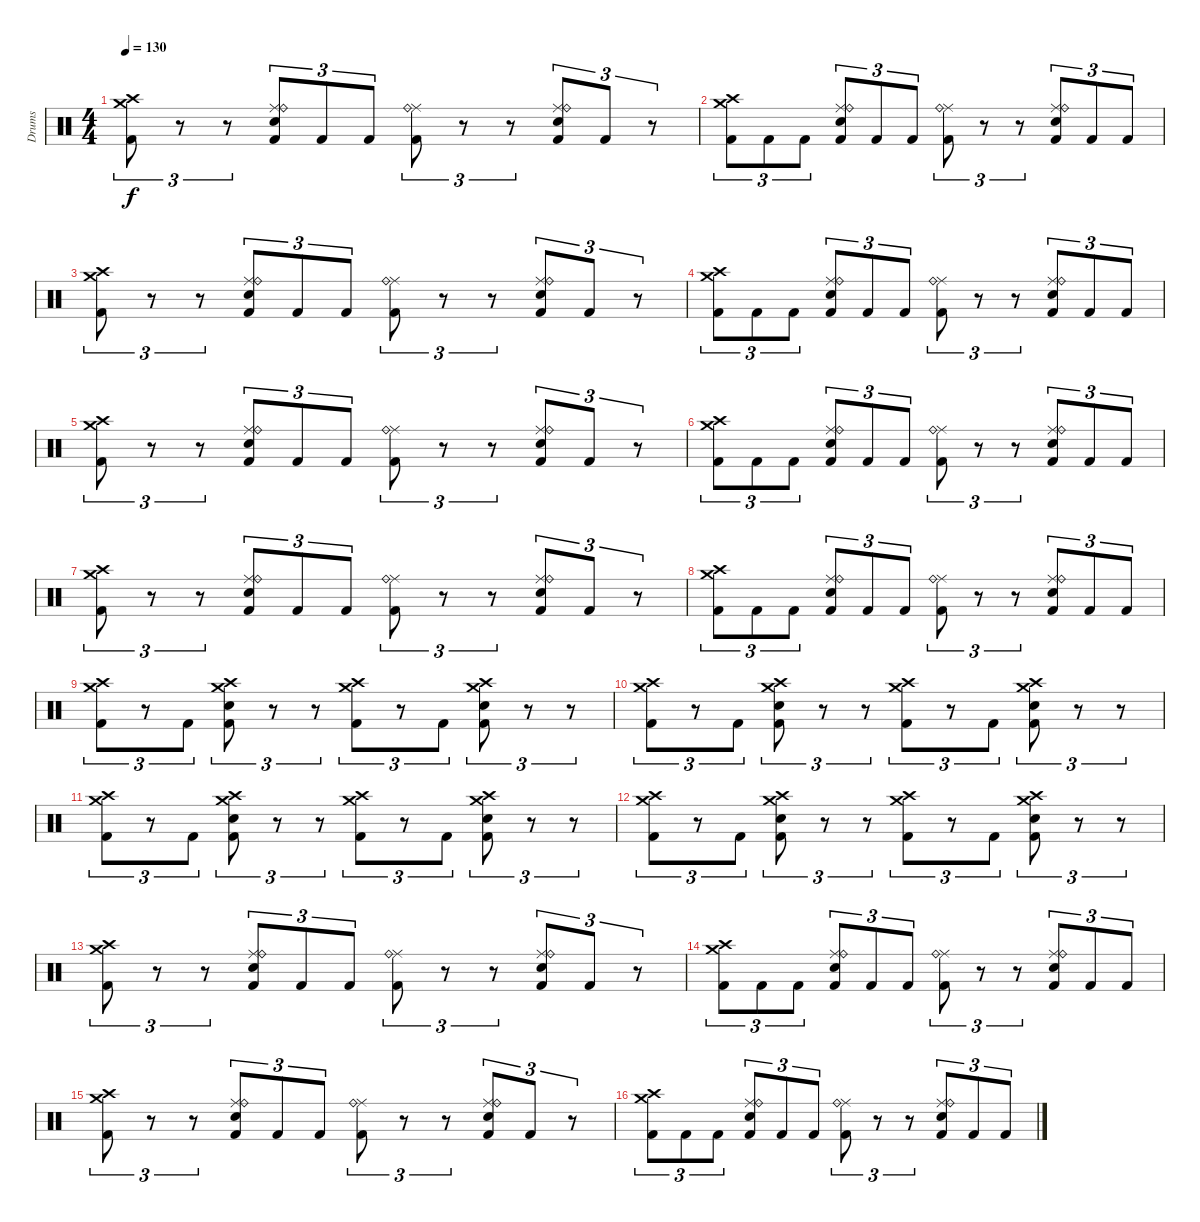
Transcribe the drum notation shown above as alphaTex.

\track ("Drums" "Drums") {instrument percussion}
\staff {score}
\articulation defaults
\ts (4 4)
\tempo 130
\clef neutral
\ks c
("Crash medium (hit)" "Crash high (hit)" "Kick (hit) 2").8{tu (3 2) dy f} r.8{tu (3 2)} r.8{tu (3 2)} ("Ride (middle)" "Ride (bell)" "Snare (hit) 2" "Kick (hit) 2").8{tu (3 2)} "Kick (hit) 2".8{tu (3 2)} "Kick (hit) 2".8{tu (3 2)} ("Ride (middle)" "Ride (bell)" "Kick (hit) 2").8{tu (3 2)} r.8{tu (3 2)} r.8{tu (3 2)} ("Ride (middle)" "Ride (bell)" "Snare (hit) 2" "Kick (hit) 2").8{tu (3 2)} "Kick (hit) 2".8{tu (3 2)} r.8{tu (3 2)} |
("Crash medium (hit)" "Crash high (hit)" "Kick (hit) 2").8{tu (3 2)} "Kick (hit) 2".8{tu (3 2)} "Kick (hit) 2".8{tu (3 2)} ("Ride (middle)" "Ride (bell)" "Snare (hit) 2" "Kick (hit) 2").8{tu (3 2)} "Kick (hit) 2".8{tu (3 2)} "Kick (hit) 2".8{tu (3 2)} ("Ride (middle)" "Ride (bell)" "Kick (hit) 2").8{tu (3 2)} r.8{tu (3 2)} r.8{tu (3 2)} ("Ride (middle)" "Ride (bell)" "Snare (hit) 2" "Kick (hit) 2").8{tu (3 2)} "Kick (hit) 2".8{tu (3 2)} "Kick (hit) 2".8{tu (3 2)} |
("Crash medium (hit)" "Crash high (hit)" "Kick (hit) 2").8{tu (3 2)} r.8{tu (3 2)} r.8{tu (3 2)} ("Ride (middle)" "Ride (bell)" "Snare (hit) 2" "Kick (hit) 2").8{tu (3 2)} "Kick (hit) 2".8{tu (3 2)} "Kick (hit) 2".8{tu (3 2)} ("Ride (middle)" "Ride (bell)" "Kick (hit) 2").8{tu (3 2)} r.8{tu (3 2)} r.8{tu (3 2)} ("Ride (middle)" "Ride (bell)" "Snare (hit) 2" "Kick (hit) 2").8{tu (3 2)} "Kick (hit) 2".8{tu (3 2)} r.8{tu (3 2)} |
("Crash medium (hit)" "Crash high (hit)" "Kick (hit) 2").8{tu (3 2)} "Kick (hit) 2".8{tu (3 2)} "Kick (hit) 2".8{tu (3 2)} ("Ride (middle)" "Ride (bell)" "Snare (hit) 2" "Kick (hit) 2").8{tu (3 2)} "Kick (hit) 2".8{tu (3 2)} "Kick (hit) 2".8{tu (3 2)} ("Ride (middle)" "Ride (bell)" "Kick (hit) 2").8{tu (3 2)} r.8{tu (3 2)} r.8{tu (3 2)} ("Ride (middle)" "Ride (bell)" "Snare (hit) 2" "Kick (hit) 2").8{tu (3 2)} "Kick (hit) 2".8{tu (3 2)} "Kick (hit) 2".8{tu (3 2)} |
("Crash medium (hit)" "Crash high (hit)" "Kick (hit) 2").8{tu (3 2)} r.8{tu (3 2)} r.8{tu (3 2)} ("Ride (middle)" "Ride (bell)" "Snare (hit) 2" "Kick (hit) 2").8{tu (3 2)} "Kick (hit) 2".8{tu (3 2)} "Kick (hit) 2".8{tu (3 2)} ("Ride (middle)" "Ride (bell)" "Kick (hit) 2").8{tu (3 2)} r.8{tu (3 2)} r.8{tu (3 2)} ("Ride (middle)" "Ride (bell)" "Snare (hit) 2" "Kick (hit) 2").8{tu (3 2)} "Kick (hit) 2".8{tu (3 2)} r.8{tu (3 2)} |
("Crash medium (hit)" "Crash high (hit)" "Kick (hit) 2").8{tu (3 2)} "Kick (hit) 2".8{tu (3 2)} "Kick (hit) 2".8{tu (3 2)} ("Ride (middle)" "Ride (bell)" "Snare (hit) 2" "Kick (hit) 2").8{tu (3 2)} "Kick (hit) 2".8{tu (3 2)} "Kick (hit) 2".8{tu (3 2)} ("Ride (middle)" "Ride (bell)" "Kick (hit) 2").8{tu (3 2)} r.8{tu (3 2)} r.8{tu (3 2)} ("Ride (middle)" "Ride (bell)" "Snare (hit) 2" "Kick (hit) 2").8{tu (3 2)} "Kick (hit) 2".8{tu (3 2)} "Kick (hit) 2".8{tu (3 2)} |
("Crash medium (hit)" "Crash high (hit)" "Kick (hit) 2").8{tu (3 2)} r.8{tu (3 2)} r.8{tu (3 2)} ("Ride (middle)" "Ride (bell)" "Snare (hit) 2" "Kick (hit) 2").8{tu (3 2)} "Kick (hit) 2".8{tu (3 2)} "Kick (hit) 2".8{tu (3 2)} ("Ride (middle)" "Ride (bell)" "Kick (hit) 2").8{tu (3 2)} r.8{tu (3 2)} r.8{tu (3 2)} ("Ride (middle)" "Ride (bell)" "Snare (hit) 2" "Kick (hit) 2").8{tu (3 2)} "Kick (hit) 2".8{tu (3 2)} r.8{tu (3 2)} |
("Crash medium (hit)" "Crash high (hit)" "Kick (hit) 2").8{tu (3 2)} "Kick (hit) 2".8{tu (3 2)} "Kick (hit) 2".8{tu (3 2)} ("Ride (middle)" "Ride (bell)" "Snare (hit) 2" "Kick (hit) 2").8{tu (3 2)} "Kick (hit) 2".8{tu (3 2)} "Kick (hit) 2".8{tu (3 2)} ("Ride (middle)" "Ride (bell)" "Kick (hit) 2").8{tu (3 2)} r.8{tu (3 2)} r.8{tu (3 2)} ("Ride (middle)" "Ride (bell)" "Snare (hit) 2" "Kick (hit) 2").8{tu (3 2)} "Kick (hit) 2".8{tu (3 2)} "Kick (hit) 2".8{tu (3 2)} |
("Crash medium (hit)" "Crash high (hit)" "Kick (hit) 2").8{tu (3 2)} r.8{tu (3 2)} "Kick (hit) 2".8{tu (3 2)} ("Crash medium (hit)" "Crash high (hit)" "Snare (hit) 2" "Kick (hit) 2").8{tu (3 2)} r.8{tu (3 2)} r.8{tu (3 2)} ("Crash medium (hit)" "Crash high (hit)" "Kick (hit) 2").8{tu (3 2)} r.8{tu (3 2)} "Kick (hit) 2".8{tu (3 2)} ("Crash medium (hit)" "Crash high (hit)" "Snare (hit) 2" "Kick (hit) 2").8{tu (3 2)} r.8{tu (3 2)} r.8{tu (3 2)} |
("Crash medium (hit)" "Crash high (hit)" "Kick (hit) 2").8{tu (3 2)} r.8{tu (3 2)} "Kick (hit) 2".8{tu (3 2)} ("Crash medium (hit)" "Crash high (hit)" "Snare (hit) 2" "Kick (hit) 2").8{tu (3 2)} r.8{tu (3 2)} r.8{tu (3 2)} ("Crash medium (hit)" "Crash high (hit)" "Kick (hit) 2").8{tu (3 2)} r.8{tu (3 2)} "Kick (hit) 2".8{tu (3 2)} ("Crash medium (hit)" "Crash high (hit)" "Snare (hit) 2" "Kick (hit) 2").8{tu (3 2)} r.8{tu (3 2)} r.8{tu (3 2)} |
("Crash medium (hit)" "Crash high (hit)" "Kick (hit) 2").8{tu (3 2)} r.8{tu (3 2)} "Kick (hit) 2".8{tu (3 2)} ("Crash medium (hit)" "Crash high (hit)" "Snare (hit) 2" "Kick (hit) 2").8{tu (3 2)} r.8{tu (3 2)} r.8{tu (3 2)} ("Crash medium (hit)" "Crash high (hit)" "Kick (hit) 2").8{tu (3 2)} r.8{tu (3 2)} "Kick (hit) 2".8{tu (3 2)} ("Crash medium (hit)" "Crash high (hit)" "Snare (hit) 2" "Kick (hit) 2").8{tu (3 2)} r.8{tu (3 2)} r.8{tu (3 2)} |
("Crash medium (hit)" "Crash high (hit)" "Kick (hit) 2").8{tu (3 2)} r.8{tu (3 2)} "Kick (hit) 2".8{tu (3 2)} ("Crash medium (hit)" "Crash high (hit)" "Snare (hit) 2" "Kick (hit) 2").8{tu (3 2)} r.8{tu (3 2)} r.8{tu (3 2)} ("Crash medium (hit)" "Crash high (hit)" "Kick (hit) 2").8{tu (3 2)} r.8{tu (3 2)} "Kick (hit) 2".8{tu (3 2)} ("Crash medium (hit)" "Crash high (hit)" "Snare (hit) 2" "Kick (hit) 2").8{tu (3 2)} r.8{tu (3 2)} r.8{tu (3 2)} |
("Crash medium (hit)" "Crash high (hit)" "Kick (hit) 2").8{tu (3 2)} r.8{tu (3 2)} r.8{tu (3 2)} ("Ride (middle)" "Ride (bell)" "Snare (hit) 2" "Kick (hit) 2").8{tu (3 2)} "Kick (hit) 2".8{tu (3 2)} "Kick (hit) 2".8{tu (3 2)} ("Ride (middle)" "Ride (bell)" "Kick (hit) 2").8{tu (3 2)} r.8{tu (3 2)} r.8{tu (3 2)} ("Ride (middle)" "Ride (bell)" "Snare (hit) 2" "Kick (hit) 2").8{tu (3 2)} "Kick (hit) 2".8{tu (3 2)} r.8{tu (3 2)} |
("Crash medium (hit)" "Crash high (hit)" "Kick (hit) 2").8{tu (3 2)} "Kick (hit) 2".8{tu (3 2)} "Kick (hit) 2".8{tu (3 2)} ("Ride (middle)" "Ride (bell)" "Snare (hit) 2" "Kick (hit) 2").8{tu (3 2)} "Kick (hit) 2".8{tu (3 2)} "Kick (hit) 2".8{tu (3 2)} ("Ride (middle)" "Ride (bell)" "Kick (hit) 2").8{tu (3 2)} r.8{tu (3 2)} r.8{tu (3 2)} ("Ride (middle)" "Ride (bell)" "Snare (hit) 2" "Kick (hit) 2").8{tu (3 2)} "Kick (hit) 2".8{tu (3 2)} "Kick (hit) 2".8{tu (3 2)} |
("Crash medium (hit)" "Crash high (hit)" "Kick (hit) 2").8{tu (3 2)} r.8{tu (3 2)} r.8{tu (3 2)} ("Ride (middle)" "Ride (bell)" "Snare (hit) 2" "Kick (hit) 2").8{tu (3 2)} "Kick (hit) 2".8{tu (3 2)} "Kick (hit) 2".8{tu (3 2)} ("Ride (middle)" "Ride (bell)" "Kick (hit) 2").8{tu (3 2)} r.8{tu (3 2)} r.8{tu (3 2)} ("Ride (middle)" "Ride (bell)" "Snare (hit) 2" "Kick (hit) 2").8{tu (3 2)} "Kick (hit) 2".8{tu (3 2)} r.8{tu (3 2)} |
("Crash medium (hit)" "Crash high (hit)" "Kick (hit) 2").8{tu (3 2)} "Kick (hit) 2".8{tu (3 2)} "Kick (hit) 2".8{tu (3 2)} ("Ride (middle)" "Ride (bell)" "Snare (hit) 2" "Kick (hit) 2").8{tu (3 2)} "Kick (hit) 2".8{tu (3 2)} "Kick (hit) 2".8{tu (3 2)} ("Ride (middle)" "Ride (bell)" "Kick (hit) 2").8{tu (3 2)} r.8{tu (3 2)} r.8{tu (3 2)} ("Ride (middle)" "Ride (bell)" "Snare (hit) 2" "Kick (hit) 2").8{tu (3 2)} "Kick (hit) 2".8{tu (3 2)} "Kick (hit) 2".8{tu (3 2)}
